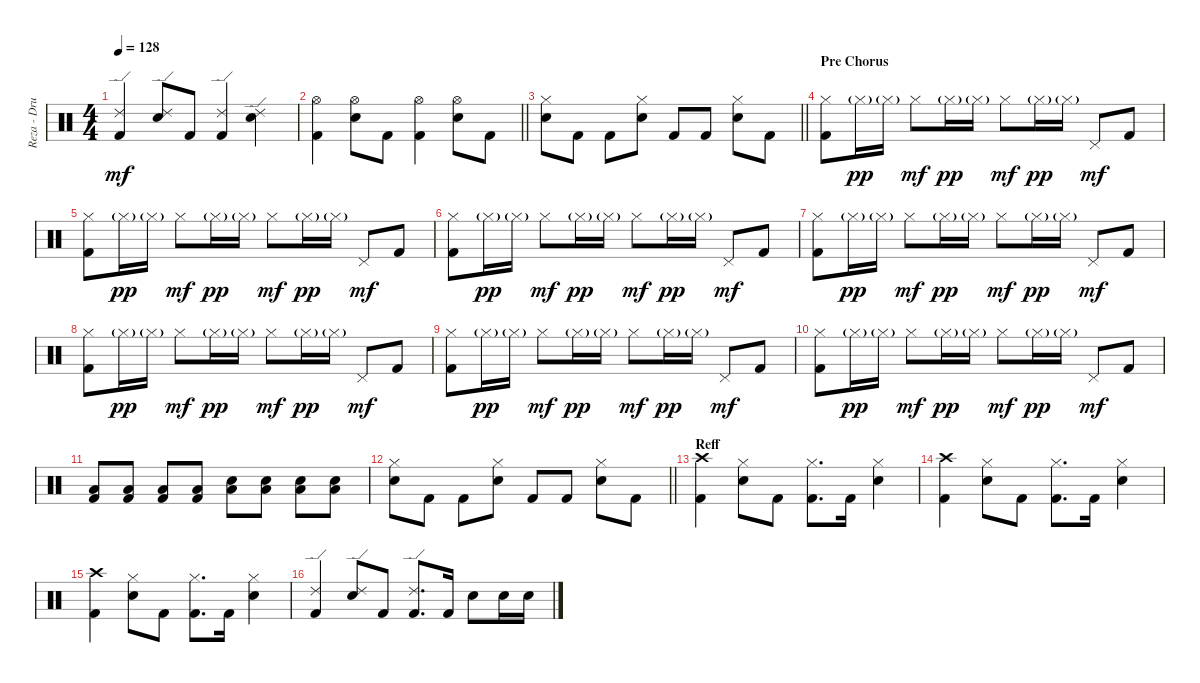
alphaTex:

\track ("Reza - Drum" "Reza - Dru") {instrument percussion}
\staff {score}
\articulation defaults
\ts (4 4)
\tempo 128
\clef neutral
\ks c
("Ride (edge) 2" "Kick (hit) 2").4{dy mf} ("Ride (edge) 2" "Electric Snare (hit)").8 "Kick (hit) 2".8 ("Ride (edge) 2" "Kick (hit) 2").4 ("Ride (edge) 2" "Electric Snare (hit)").4 |
\barLineRight lightlight
("Hi-Hat (open)" "Kick (hit) 2").4 ("Hi-Hat (open)" "Electric Snare (hit)").8 "Kick (hit) 2".8 ("Hi-Hat (open)" "Kick (hit) 2").4 ("Hi-Hat (open)" "Electric Snare (hit)").8 "Kick (hit) 2".8 |
\barLineRight lightlight
("Hi-Hat (closed)" "Electric Snare (hit)").8 "Kick (hit) 2".8 "Kick (hit) 2".8 ("Hi-Hat (closed)" "Electric Snare (hit)").8 "Kick (hit) 2".8 "Kick (hit) 2".8 ("Hi-Hat (closed)" "Electric Snare (hit)").8 "Kick (hit) 2".8 |
\section ("" "Pre Chorus")
("Hi-Hat (closed)" "Kick (hit) 2").8 "Hi-Hat (closed)"{g}.16{dy pp} "Hi-Hat (closed)"{g}.16 "Hi-Hat (closed)".8{dy mf} "Hi-Hat (closed)"{g}.16{dy pp} "Hi-Hat (closed)"{g}.16 "Hi-Hat (closed)".8{dy mf} "Hi-Hat (closed)"{g}.16{dy pp} "Hi-Hat (closed)"{g}.16 "Pedal Hi-Hat (hit)".8{dy mf} "Kick (hit) 2".8 |
("Hi-Hat (closed)" "Kick (hit) 2").8 "Hi-Hat (closed)"{g}.16{dy pp} "Hi-Hat (closed)"{g}.16 "Hi-Hat (closed)".8{dy mf} "Hi-Hat (closed)"{g}.16{dy pp} "Hi-Hat (closed)"{g}.16 "Hi-Hat (closed)".8{dy mf} "Hi-Hat (closed)"{g}.16{dy pp} "Hi-Hat (closed)"{g}.16 "Pedal Hi-Hat (hit)".8{dy mf} "Kick (hit) 2".8 |
("Hi-Hat (closed)" "Kick (hit) 2").8 "Hi-Hat (closed)"{g}.16{dy pp} "Hi-Hat (closed)"{g}.16 "Hi-Hat (closed)".8{dy mf} "Hi-Hat (closed)"{g}.16{dy pp} "Hi-Hat (closed)"{g}.16 "Hi-Hat (closed)".8{dy mf} "Hi-Hat (closed)"{g}.16{dy pp} "Hi-Hat (closed)"{g}.16 "Pedal Hi-Hat (hit)".8{dy mf} "Kick (hit) 2".8 |
("Hi-Hat (closed)" "Kick (hit) 2").8 "Hi-Hat (closed)"{g}.16{dy pp} "Hi-Hat (closed)"{g}.16 "Hi-Hat (closed)".8{dy mf} "Hi-Hat (closed)"{g}.16{dy pp} "Hi-Hat (closed)"{g}.16 "Hi-Hat (closed)".8{dy mf} "Hi-Hat (closed)"{g}.16{dy pp} "Hi-Hat (closed)"{g}.16 "Pedal Hi-Hat (hit)".8{dy mf} "Kick (hit) 2".8 |
("Hi-Hat (closed)" "Kick (hit) 2").8 "Hi-Hat (closed)"{g}.16{dy pp} "Hi-Hat (closed)"{g}.16 "Hi-Hat (closed)".8{dy mf} "Hi-Hat (closed)"{g}.16{dy pp} "Hi-Hat (closed)"{g}.16 "Hi-Hat (closed)".8{dy mf} "Hi-Hat (closed)"{g}.16{dy pp} "Hi-Hat (closed)"{g}.16 "Pedal Hi-Hat (hit)".8{dy mf} "Kick (hit) 2".8 |
("Hi-Hat (closed)" "Kick (hit) 2").8 "Hi-Hat (closed)"{g}.16{dy pp} "Hi-Hat (closed)"{g}.16 "Hi-Hat (closed)".8{dy mf} "Hi-Hat (closed)"{g}.16{dy pp} "Hi-Hat (closed)"{g}.16 "Hi-Hat (closed)".8{dy mf} "Hi-Hat (closed)"{g}.16{dy pp} "Hi-Hat (closed)"{g}.16 "Pedal Hi-Hat (hit)".8{dy mf} "Kick (hit) 2".8 |
("Hi-Hat (closed)" "Kick (hit) 2").8 "Hi-Hat (closed)"{g}.16{dy pp} "Hi-Hat (closed)"{g}.16 "Hi-Hat (closed)".8{dy mf} "Hi-Hat (closed)"{g}.16{dy pp} "Hi-Hat (closed)"{g}.16 "Hi-Hat (closed)".8{dy mf} "Hi-Hat (closed)"{g}.16{dy pp} "Hi-Hat (closed)"{g}.16 "Pedal Hi-Hat (hit)".8{dy mf} "Kick (hit) 2".8 |
("Low Floor Tom (hit)" "Kick (hit) 2").8 ("Low Floor Tom (hit)" "Kick (hit) 2").8 ("Low Floor Tom (hit)" "Kick (hit) 2").8 ("Low Floor Tom (hit)" "Kick (hit) 2").8 ("Low Floor Tom (hit)" "Electric Snare (hit)").8 ("Low Floor Tom (hit)" "Electric Snare (hit)").8 ("Low Floor Tom (hit)" "Electric Snare (hit)").8 ("Low Floor Tom (hit)" "Electric Snare (hit)").8 |
\barLineRight lightlight
("Hi-Hat (closed)" "Electric Snare (hit)").8 "Kick (hit) 2".8 "Kick (hit) 2".8 ("Hi-Hat (closed)" "Electric Snare (hit)").8 "Kick (hit) 2".8 "Kick (hit) 2".8 ("Hi-Hat (closed)" "Electric Snare (hit)").8 "Kick (hit) 2".8 |
\section ("" "Reff")
("Crash high (hit)" "Kick (hit) 2").4 ("Hi-Hat (closed)" "Electric Snare (hit)").8 "Kick (hit) 2".8 ("Hi-Hat (closed)" "Kick (hit) 2").8{d} "Kick (hit) 2".16 ("Hi-Hat (closed)" "Electric Snare (hit)").4 |
("Crash high (hit)" "Kick (hit) 2").4 ("Hi-Hat (closed)" "Electric Snare (hit)").8 "Kick (hit) 2".8 ("Hi-Hat (closed)" "Kick (hit) 2").8{d} "Kick (hit) 2".16 ("Hi-Hat (closed)" "Electric Snare (hit)").4 |
("Crash high (hit)" "Kick (hit) 2").4 ("Hi-Hat (closed)" "Electric Snare (hit)").8 "Kick (hit) 2".8 ("Hi-Hat (closed)" "Kick (hit) 2").8{d} "Kick (hit) 2".16 ("Hi-Hat (closed)" "Electric Snare (hit)").4 |
("Ride (edge) 2" "Kick (hit) 2").4 ("Ride (edge) 2" "Electric Snare (hit)").8 "Kick (hit) 2".8 ("Ride (edge) 2" "Kick (hit) 2").8{d} "Kick (hit) 2".16 "Electric Snare (hit)".8 "Electric Snare (hit)".16 "Electric Snare (hit)".16
